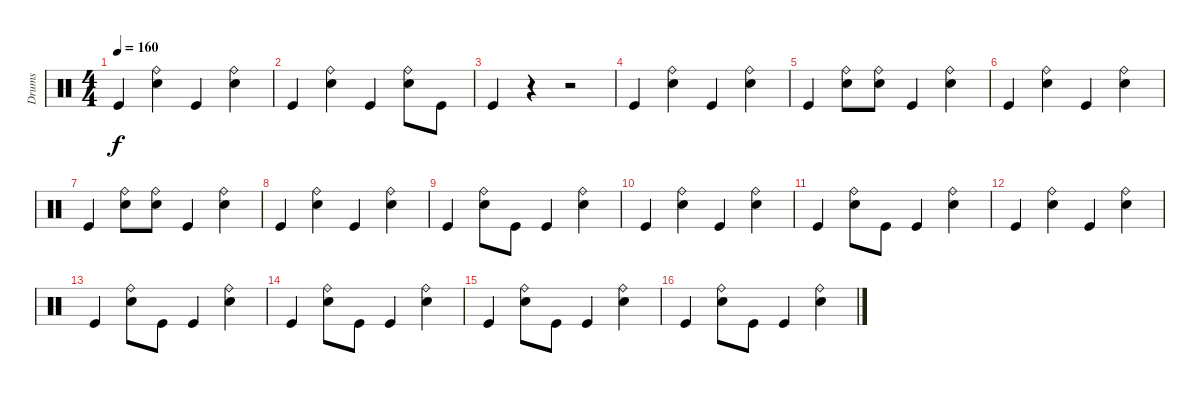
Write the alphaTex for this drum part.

\track ("Drums" "Drums") {instrument percussion}
\staff {score}
\articulation defaults
\ts (4 4)
\tempo 160
\clef neutral
\ks c "Kick (hit)".4{dy f}
("Snare (hit) 2" "Ride (bell)").4 "Kick (hit)".4 ("Snare (hit) 2" "Ride (bell)").4 |
"Kick (hit)".4 ("Snare (hit) 2" "Ride (bell)").4 "Kick (hit)".4 ("Snare (hit) 2" "Ride (bell)").8 "Kick (hit)".8 |
"Kick (hit)".4 r.4 r.2 |
"Kick (hit)".4 ("Snare (hit) 2" "Ride (bell)").4 "Kick (hit)".4 ("Snare (hit) 2" "Ride (bell)").4 |
"Kick (hit)".4 ("Snare (hit) 2" "Ride (bell)").8 ("Ride (bell)" "Snare (hit) 2").8 "Kick (hit)".4 ("Snare (hit) 2" "Ride (bell)").4 |
"Kick (hit)".4 ("Snare (hit) 2" "Ride (bell)").4 "Kick (hit)".4 ("Snare (hit) 2" "Ride (bell)").4 |
"Kick (hit)".4 ("Snare (hit) 2" "Ride (bell)").8 ("Ride (bell)" "Snare (hit) 2").8 "Kick (hit)".4 ("Snare (hit) 2" "Ride (bell)").4 |
"Kick (hit)".4 ("Snare (hit) 2" "Ride (bell)").4 "Kick (hit)".4 ("Snare (hit) 2" "Ride (bell)").4 |
"Kick (hit)".4 ("Snare (hit) 2" "Ride (bell)").8 "Kick (hit)".8 "Kick (hit)".4 ("Snare (hit) 2" "Ride (bell)").4 |
"Kick (hit)".4 ("Snare (hit) 2" "Ride (bell)").4 "Kick (hit)".4 ("Snare (hit) 2" "Ride (bell)").4 |
"Kick (hit)".4 ("Snare (hit) 2" "Ride (bell)").8 "Kick (hit)".8 "Kick (hit)".4 ("Snare (hit) 2" "Ride (bell)").4 |
"Kick (hit)".4 ("Snare (hit) 2" "Ride (bell)").4 "Kick (hit)".4 ("Snare (hit) 2" "Ride (bell)").4 |
"Kick (hit)".4 ("Snare (hit) 2" "Ride (bell)").8 "Kick (hit)".8 "Kick (hit)".4 ("Snare (hit) 2" "Ride (bell)").4 |
"Kick (hit)".4 ("Snare (hit) 2" "Ride (bell)").8 "Kick (hit)".8 "Kick (hit)".4 ("Snare (hit) 2" "Ride (bell)").4 |
"Kick (hit)".4 ("Snare (hit) 2" "Ride (bell)").8 "Kick (hit)".8 "Kick (hit)".4 ("Snare (hit) 2" "Ride (bell)").4 |
"Kick (hit)".4 ("Snare (hit) 2" "Ride (bell)").8 "Kick (hit)".8 "Kick (hit)".4 ("Snare (hit) 2" "Ride (bell)").4
